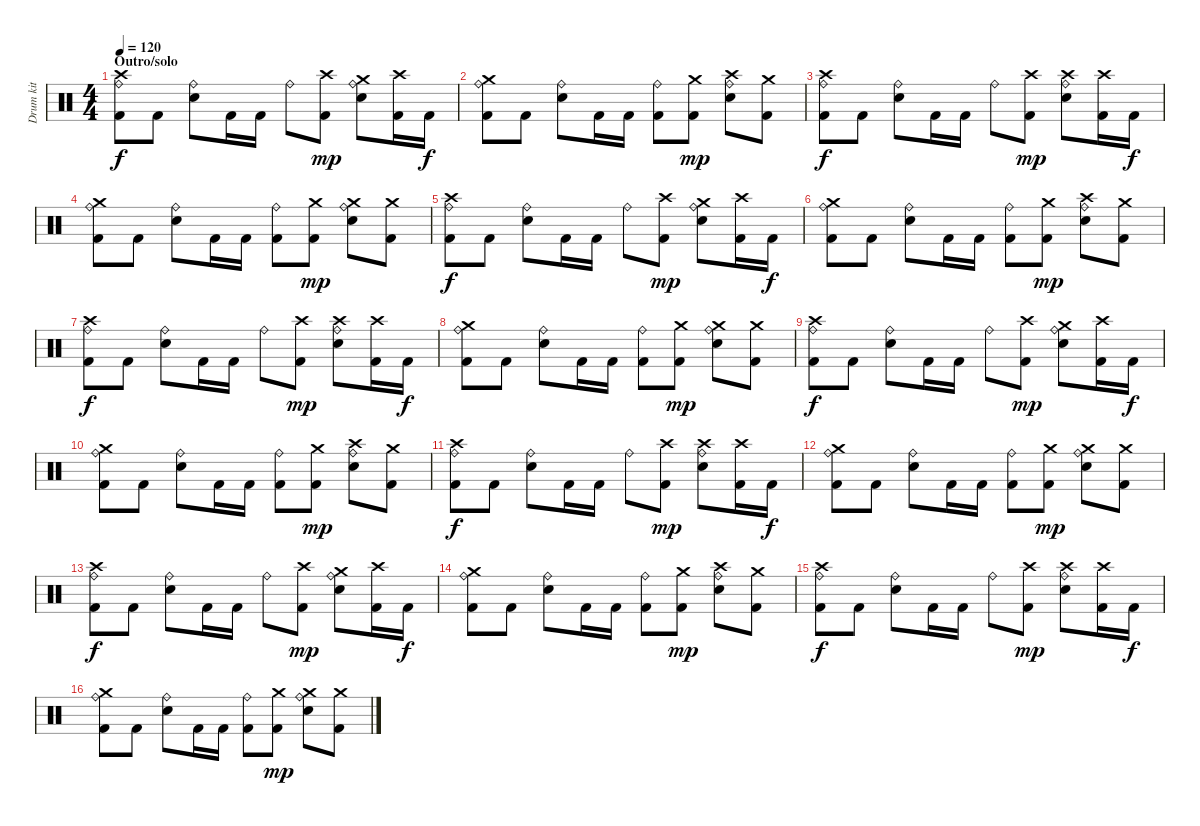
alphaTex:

\track ("Drum kit" "Drum kit") {instrument percussion}
\staff {score}
\articulation defaults
\ts (4 4)
\section ("" "Outro/solo")
\tempo 120
\clef neutral
\ks c
("Crash high (hit)" "Kick (hit) 2" "Ride (bell)").8{dy f} "Kick (hit) 2".8 ("Electric Snare (hit)" "Ride (bell)").8 "Kick (hit) 2".16 "Kick (hit) 2".16 "Ride (bell)".8 ("Crash high (hit)" "Kick (hit) 2").8{dy mp} ("Crash medium (hit)" "Electric Snare (hit)" "Ride (bell)").8 ("Crash high (hit)" "Kick (hit) 2").16 "Kick (hit) 2".16{dy f} |
("Crash medium (hit)" "Kick (hit) 2" "Ride (bell)").8 "Kick (hit) 2".8 ("Electric Snare (hit)" "Ride (bell)").8 "Kick (hit) 2".16 "Kick (hit) 2".16 ("Kick (hit) 2" "Ride (bell)").8 ("Crash medium (hit)" "Kick (hit) 2").8{dy mp} ("Crash high (hit)" "Electric Snare (hit)" "Ride (bell)").8 ("Crash medium (hit)" "Kick (hit) 2").8 |
("Crash high (hit)" "Kick (hit) 2" "Ride (bell)").8{dy f} "Kick (hit) 2".8 ("Electric Snare (hit)" "Ride (bell)").8 "Kick (hit) 2".16 "Kick (hit) 2".16 "Ride (bell)".8 ("Crash high (hit)" "Kick (hit) 2").8{dy mp} ("Crash high (hit)" "Electric Snare (hit)" "Ride (bell)").8 ("Crash high (hit)" "Kick (hit) 2").16 "Kick (hit) 2".16{dy f} |
("Crash medium (hit)" "Kick (hit) 2" "Ride (bell)").8 "Kick (hit) 2".8 ("Electric Snare (hit)" "Ride (bell)").8 "Kick (hit) 2".16 "Kick (hit) 2".16 ("Kick (hit) 2" "Ride (bell)").8 ("Crash medium (hit)" "Kick (hit) 2").8{dy mp} ("Crash medium (hit)" "Electric Snare (hit)" "Ride (bell)").8 ("Crash medium (hit)" "Kick (hit) 2").8 |
("Crash high (hit)" "Kick (hit) 2" "Ride (bell)").8{dy f} "Kick (hit) 2".8 ("Electric Snare (hit)" "Ride (bell)").8 "Kick (hit) 2".16 "Kick (hit) 2".16 "Ride (bell)".8 ("Crash high (hit)" "Kick (hit) 2").8{dy mp} ("Crash medium (hit)" "Electric Snare (hit)" "Ride (bell)").8 ("Crash high (hit)" "Kick (hit) 2").16 "Kick (hit) 2".16{dy f} |
("Crash medium (hit)" "Kick (hit) 2" "Ride (bell)").8 "Kick (hit) 2".8 ("Electric Snare (hit)" "Ride (bell)").8 "Kick (hit) 2".16 "Kick (hit) 2".16 ("Kick (hit) 2" "Ride (bell)").8 ("Crash medium (hit)" "Kick (hit) 2").8{dy mp} ("Crash high (hit)" "Electric Snare (hit)" "Ride (bell)").8 ("Crash medium (hit)" "Kick (hit) 2").8 |
("Crash high (hit)" "Kick (hit) 2" "Ride (bell)").8{dy f} "Kick (hit) 2".8 ("Electric Snare (hit)" "Ride (bell)").8 "Kick (hit) 2".16 "Kick (hit) 2".16 "Ride (bell)".8 ("Crash high (hit)" "Kick (hit) 2").8{dy mp} ("Crash high (hit)" "Electric Snare (hit)" "Ride (bell)").8 ("Crash high (hit)" "Kick (hit) 2").16 "Kick (hit) 2".16{dy f} |
("Crash medium (hit)" "Kick (hit) 2" "Ride (bell)").8 "Kick (hit) 2".8 ("Electric Snare (hit)" "Ride (bell)").8 "Kick (hit) 2".16 "Kick (hit) 2".16 ("Kick (hit) 2" "Ride (bell)").8 ("Crash medium (hit)" "Kick (hit) 2").8{dy mp} ("Crash medium (hit)" "Electric Snare (hit)" "Ride (bell)").8 ("Crash medium (hit)" "Kick (hit) 2").8 |
("Crash high (hit)" "Kick (hit) 2" "Ride (bell)").8{dy f} "Kick (hit) 2".8 ("Electric Snare (hit)" "Ride (bell)").8 "Kick (hit) 2".16 "Kick (hit) 2".16 "Ride (bell)".8 ("Crash high (hit)" "Kick (hit) 2").8{dy mp} ("Crash medium (hit)" "Electric Snare (hit)" "Ride (bell)").8 ("Crash high (hit)" "Kick (hit) 2").16 "Kick (hit) 2".16{dy f} |
("Crash medium (hit)" "Kick (hit) 2" "Ride (bell)").8 "Kick (hit) 2".8 ("Electric Snare (hit)" "Ride (bell)").8 "Kick (hit) 2".16 "Kick (hit) 2".16 ("Kick (hit) 2" "Ride (bell)").8 ("Crash medium (hit)" "Kick (hit) 2").8{dy mp} ("Crash high (hit)" "Electric Snare (hit)" "Ride (bell)").8 ("Crash medium (hit)" "Kick (hit) 2").8 |
("Crash high (hit)" "Kick (hit) 2" "Ride (bell)").8{dy f} "Kick (hit) 2".8 ("Electric Snare (hit)" "Ride (bell)").8 "Kick (hit) 2".16 "Kick (hit) 2".16 "Ride (bell)".8 ("Crash high (hit)" "Kick (hit) 2").8{dy mp} ("Crash high (hit)" "Electric Snare (hit)" "Ride (bell)").8 ("Crash high (hit)" "Kick (hit) 2").16 "Kick (hit) 2".16{dy f} |
("Crash medium (hit)" "Kick (hit) 2" "Ride (bell)").8 "Kick (hit) 2".8 ("Electric Snare (hit)" "Ride (bell)").8 "Kick (hit) 2".16 "Kick (hit) 2".16 ("Kick (hit) 2" "Ride (bell)").8 ("Crash medium (hit)" "Kick (hit) 2").8{dy mp} ("Crash medium (hit)" "Electric Snare (hit)" "Ride (bell)").8 ("Crash medium (hit)" "Kick (hit) 2").8 |
("Crash high (hit)" "Kick (hit) 2" "Ride (bell)").8{dy f} "Kick (hit) 2".8 ("Electric Snare (hit)" "Ride (bell)").8 "Kick (hit) 2".16 "Kick (hit) 2".16 "Ride (bell)".8 ("Crash high (hit)" "Kick (hit) 2").8{dy mp} ("Crash medium (hit)" "Electric Snare (hit)" "Ride (bell)").8 ("Crash high (hit)" "Kick (hit) 2").16 "Kick (hit) 2".16{dy f} |
("Crash medium (hit)" "Kick (hit) 2" "Ride (bell)").8 "Kick (hit) 2".8 ("Electric Snare (hit)" "Ride (bell)").8 "Kick (hit) 2".16 "Kick (hit) 2".16 ("Kick (hit) 2" "Ride (bell)").8 ("Crash medium (hit)" "Kick (hit) 2").8{dy mp} ("Crash high (hit)" "Electric Snare (hit)" "Ride (bell)").8 ("Crash medium (hit)" "Kick (hit) 2").8 |
("Crash high (hit)" "Kick (hit) 2" "Ride (bell)").8{dy f} "Kick (hit) 2".8 ("Electric Snare (hit)" "Ride (bell)").8 "Kick (hit) 2".16 "Kick (hit) 2".16 "Ride (bell)".8 ("Crash high (hit)" "Kick (hit) 2").8{dy mp} ("Crash high (hit)" "Electric Snare (hit)" "Ride (bell)").8 ("Crash high (hit)" "Kick (hit) 2").16 "Kick (hit) 2".16{dy f} |
("Crash medium (hit)" "Kick (hit) 2" "Ride (bell)").8 "Kick (hit) 2".8 ("Electric Snare (hit)" "Ride (bell)").8 "Kick (hit) 2".16 "Kick (hit) 2".16 ("Kick (hit) 2" "Ride (bell)").8 ("Crash medium (hit)" "Kick (hit) 2").8{dy mp} ("Crash medium (hit)" "Electric Snare (hit)" "Ride (bell)").8 ("Crash medium (hit)" "Kick (hit) 2").8
